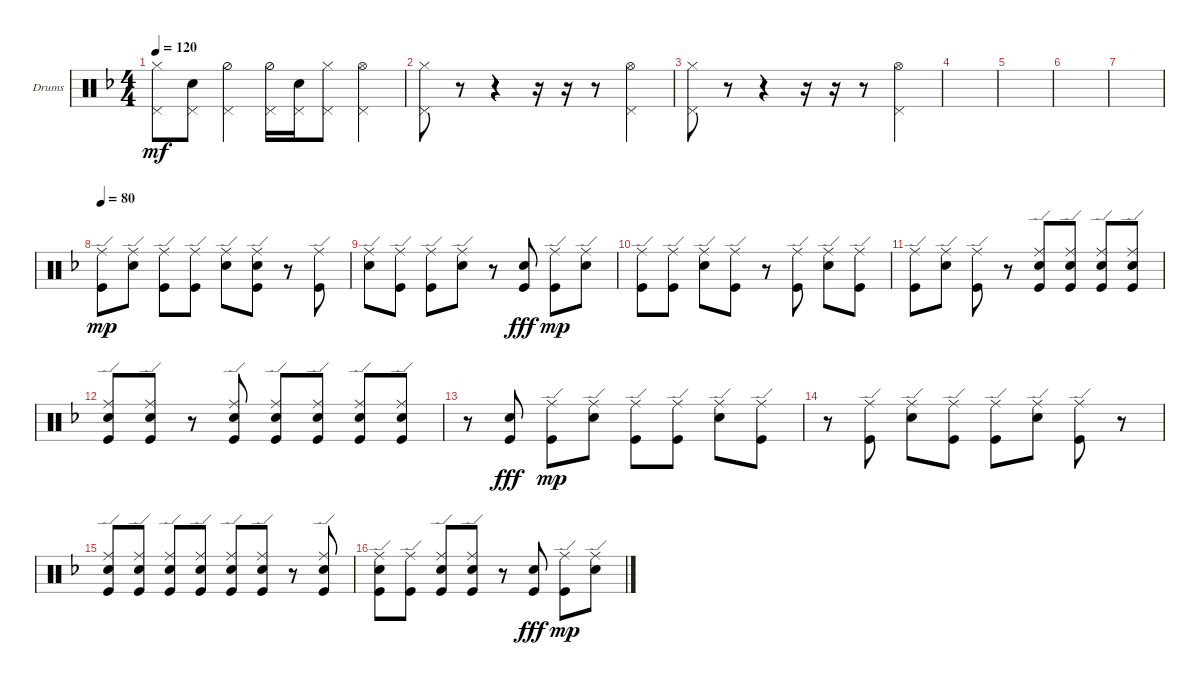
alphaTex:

\defaultSystemsLayout 4
\bracketExtendMode groupsimilarinstruments
\firstSystemTrackNameOrientation horizontal
\otherSystemsTrackNameOrientation horizontal
\track ("Drumkit" "Drums") {instrument percussion}
\staff {score}
\articulation defaults
\ts (4 4)
\tempo 120
\clef neutral
\ks f
("Pedal Hi-Hat (hit)" "Hi-Hat (closed)").8{dy mf} ("Pedal Hi-Hat (hit)" "Snare (hit) 2").8 ("Hi-Hat (half)" "Pedal Hi-Hat (hit)").4 ("Hi-Hat (half)" "Pedal Hi-Hat (hit)").16 ("Snare (hit) 2" "Pedal Hi-Hat (hit)").16 ("Hi-Hat (closed)" "Pedal Hi-Hat (hit)").8 ("Hi-Hat (open)" "Pedal Hi-Hat (hit)").4 |
("Pedal Hi-Hat (hit)" "Hi-Hat (closed)").8 r.8 r.4 r.16 r.16 r.8 ("Hi-Hat (open)" "Pedal Hi-Hat (hit)").4 |
("Pedal Hi-Hat (hit)" "Hi-Hat (closed)").8 r.8 r.4 r.16 r.16 r.8 ("Hi-Hat (open)" "Pedal Hi-Hat (hit)").4 |
|
|
|
|
\tempo 80
("Ride (edge)" "Kick (hit)").8{dy mp} ("Ride (edge)" "Snare (hit) 2").8 ("Ride (edge)" "Kick (hit)").8 ("Ride (edge)" "Kick (hit)").8 ("Ride (edge)" "Snare (hit) 2").8 ("Ride (edge)" "Kick (hit)" "Snare (hit) 2").8 r.8 ("Ride (edge)" "Kick (hit)").8 |
("Ride (edge)" "Snare (hit) 2").8 ("Ride (edge)" "Kick (hit)").8 ("Ride (edge)" "Kick (hit)").8 ("Ride (edge)" "Snare (hit) 2").8 r.8 ("Kick (hit)" "Snare (hit) 2").8{dy fff} ("Kick (hit)" "Ride (edge)").8{dy mp} ("Ride (edge)" "Snare (hit) 2").8 |
("Kick (hit)" "Ride (edge)").8 ("Kick (hit)" "Ride (edge)").8 ("Ride (edge)" "Snare (hit) 2").8 ("Kick (hit)" "Ride (edge)").8 r.8 ("Kick (hit)" "Ride (edge)").8 ("Ride (edge)" "Snare (hit) 2").8 ("Kick (hit)" "Ride (edge)").8 |
("Ride (edge)" "Kick (hit)").8 ("Ride (edge)" "Snare (hit) 2").8 ("Ride (edge)" "Kick (hit)").8 r.8 ("Kick (hit)" "Ride (edge)" "Snare (hit) 2").8 ("Kick (hit)" "Ride (edge)" "Snare (hit) 2").8 ("Kick (hit)" "Ride (edge)" "Snare (hit) 2").8 ("Kick (hit)" "Ride (edge)" "Snare (hit) 2").8 |
("Kick (hit)" "Ride (edge)" "Snare (hit) 2").8 ("Kick (hit)" "Ride (edge)" "Snare (hit) 2").8 r.8 ("Kick (hit)" "Ride (edge)" "Snare (hit) 2").8 ("Kick (hit)" "Ride (edge)" "Snare (hit) 2").8 ("Kick (hit)" "Ride (edge)" "Snare (hit) 2").8 ("Kick (hit)" "Ride (edge)" "Snare (hit) 2").8 ("Kick (hit)" "Ride (edge)" "Snare (hit) 2").8 |
r.8 ("Kick (hit)" "Snare (hit) 2").8{dy fff} ("Kick (hit)" "Ride (edge)").8{dy mp} ("Ride (edge)" "Snare (hit) 2").8 ("Kick (hit)" "Ride (edge)").8 ("Kick (hit)" "Ride (edge)").8 ("Ride (edge)" "Snare (hit) 2").8 ("Kick (hit)" "Ride (edge)").8 |
r.8 ("Kick (hit)" "Ride (edge)").8 ("Ride (edge)" "Snare (hit) 2").8 ("Kick (hit)" "Ride (edge)").8 ("Kick (hit)" "Ride (edge)").8 ("Ride (edge)" "Snare (hit) 2").8 ("Kick (hit)" "Ride (edge)").8 r.8 |
("Kick (hit)" "Ride (edge)" "Snare (hit) 2").8 ("Kick (hit)" "Ride (edge)" "Snare (hit) 2").8 ("Kick (hit)" "Ride (edge)" "Snare (hit) 2").8 ("Kick (hit)" "Ride (edge)" "Snare (hit) 2").8 ("Kick (hit)" "Ride (edge)" "Snare (hit) 2").8 ("Kick (hit)" "Ride (edge)" "Snare (hit) 2").8 r.8 ("Kick (hit)" "Ride (edge)" "Snare (hit) 2").8 |
("Kick (hit)" "Ride (edge)" "Snare (hit) 2").8 ("Kick (hit)" "Ride (edge)").8 ("Kick (hit)" "Ride (edge)" "Snare (hit) 2").8 ("Kick (hit)" "Ride (edge)" "Snare (hit) 2").8 r.8 ("Kick (hit)" "Snare (hit) 2").8{dy fff} ("Kick (hit)" "Ride (edge)").8{dy mp} ("Ride (edge)" "Snare (hit) 2").8
